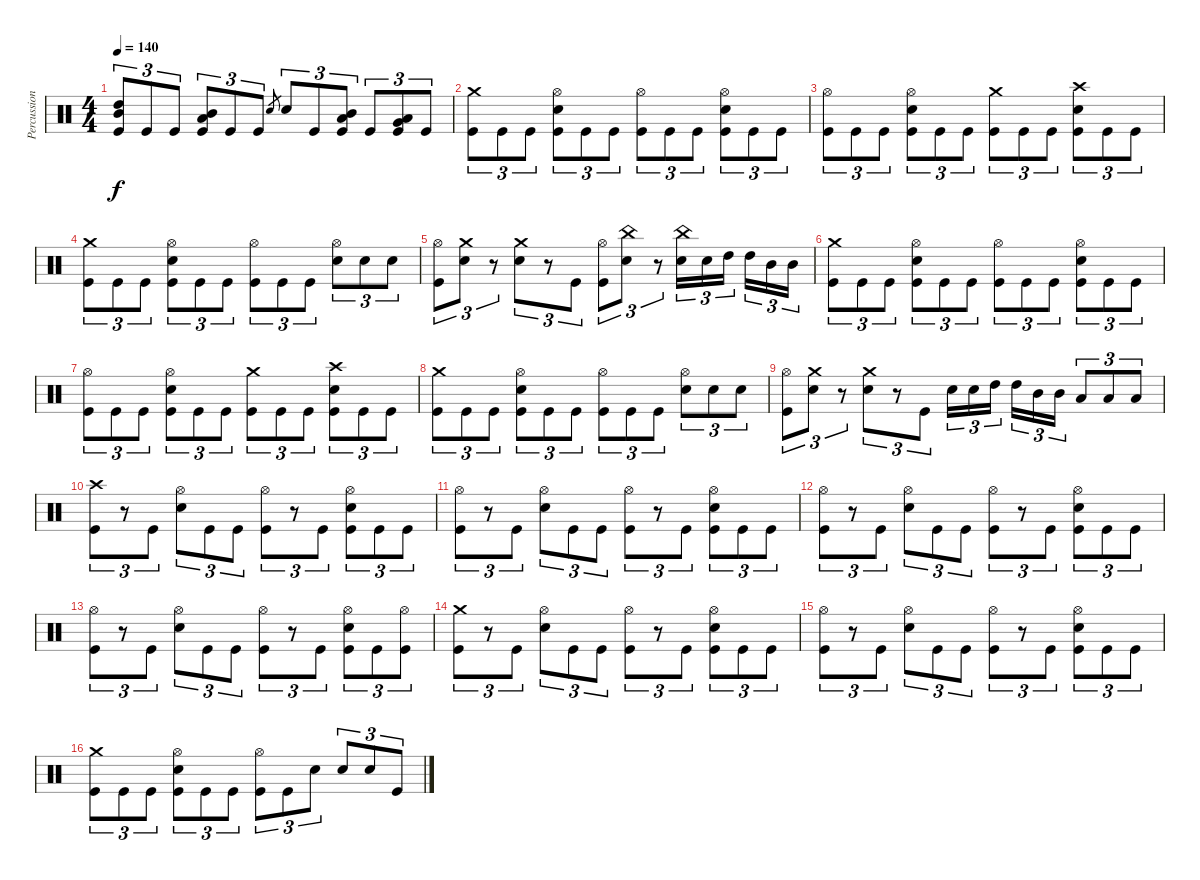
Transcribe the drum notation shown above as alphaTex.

\track ("Percussion" "Percussion") {instrument percussion}
\staff {score}
\articulation defaults
\ts (4 4)
\tempo 140
\clef neutral
\ks c
("High Tom (hit)" "Mid Tom (hit)" "Kick (hit)").8{tu (3 2) dy f} "Kick (hit)".8{tu (3 2)} "Kick (hit)".8{tu (3 2)} ("Mid Tom (hit)" "Low Tom (hit)" "Kick (hit)").8{tu (3 2)} "Kick (hit)".8{tu (3 2)} "Kick (hit)".8{tu (3 2)} "Snare (hit) 2".8{gr} "Snare (hit) 2".8{tu (3 2)} "Kick (hit)".8{tu (3 2)} ("Mid Tom (hit)" "Low Tom (hit)" "Kick (hit)").8{tu (3 2)} "Kick (hit)".8{tu (3 2)} ("Low Tom (hit)" "Very Low Tom (hit)" "Kick (hit)").8{tu (3 2)} "Kick (hit)".8{tu (3 2)} |
("Crash medium (hit)" "Kick (hit)").8{tu (3 2)} "Kick (hit)".8{tu (3 2)} "Kick (hit)".8{tu (3 2)} ("Hi-Hat (open)" "Snare (hit) 2" "Kick (hit)").8{tu (3 2)} "Kick (hit)".8{tu (3 2)} "Kick (hit)".8{tu (3 2)} ("Hi-Hat (open)" "Kick (hit)").8{tu (3 2)} "Kick (hit)".8{tu (3 2)} "Kick (hit)".8{tu (3 2)} ("Hi-Hat (open)" "Snare (hit) 2" "Kick (hit)").8{tu (3 2)} "Kick (hit)".8{tu (3 2)} "Kick (hit)".8{tu (3 2)} |
("Hi-Hat (open)" "Kick (hit)").8{tu (3 2)} "Kick (hit)".8{tu (3 2)} "Kick (hit)".8{tu (3 2)} ("Hi-Hat (open)" "Snare (hit) 2" "Kick (hit)").8{tu (3 2)} "Kick (hit)".8{tu (3 2)} "Kick (hit)".8{tu (3 2)} ("Crash medium (hit)" "Kick (hit)").8{tu (3 2)} "Kick (hit)".8{tu (3 2)} "Kick (hit)".8{tu (3 2)} ("Crash high (hit)" "Snare (hit) 2" "Kick (hit)").8{tu (3 2)} "Kick (hit)".8{tu (3 2)} "Kick (hit)".8{tu (3 2)} |
("Crash medium (hit)" "Kick (hit)").8{tu (3 2)} "Kick (hit)".8{tu (3 2)} "Kick (hit)".8{tu (3 2)} ("Hi-Hat (open)" "Snare (hit) 2" "Kick (hit)").8{tu (3 2)} "Kick (hit)".8{tu (3 2)} "Kick (hit)".8{tu (3 2)} ("Hi-Hat (open)" "Kick (hit)").8{tu (3 2)} "Kick (hit)".8{tu (3 2)} "Kick (hit)".8{tu (3 2)} ("Hi-Hat (open)" "Snare (hit) 2").8{tu (3 2)} "Snare (hit) 2".8{tu (3 2)} "Snare (hit) 2".8{tu (3 2)} |
("Hi-Hat (open)" "Kick (hit)").8{tu (3 2)} ("Crash medium (hit)" "Snare (hit) 2").8{tu (3 2)} r.8{tu (3 2)} ("Crash medium (hit)" "Snare (hit) 2").8{tu (3 2)} r.8{tu (3 2)} "Kick (hit)".8{tu (3 2)} ("Hi-Hat (open)" "Kick (hit)").8{tu (3 2)} ("China (hit)" "Snare (hit) 2").8{tu (3 2)} r.8{tu (3 2)} ("China (hit)" "Snare (hit) 2").16{tu (3 2)} "Snare (hit) 2".16{tu (3 2)} "High Tom (hit)".16{tu (3 2)} "High Tom (hit)".16{tu (3 2)} "Mid Tom (hit)".16{tu (3 2)} "Mid Tom (hit)".16{tu (3 2)} |
("Crash medium (hit)" "Kick (hit)").8{tu (3 2)} "Kick (hit)".8{tu (3 2)} "Kick (hit)".8{tu (3 2)} ("Hi-Hat (open)" "Snare (hit) 2" "Kick (hit)").8{tu (3 2)} "Kick (hit)".8{tu (3 2)} "Kick (hit)".8{tu (3 2)} ("Hi-Hat (open)" "Kick (hit)").8{tu (3 2)} "Kick (hit)".8{tu (3 2)} "Kick (hit)".8{tu (3 2)} ("Hi-Hat (open)" "Snare (hit) 2" "Kick (hit)").8{tu (3 2)} "Kick (hit)".8{tu (3 2)} "Kick (hit)".8{tu (3 2)} |
("Hi-Hat (open)" "Kick (hit)").8{tu (3 2)} "Kick (hit)".8{tu (3 2)} "Kick (hit)".8{tu (3 2)} ("Hi-Hat (open)" "Snare (hit) 2" "Kick (hit)").8{tu (3 2)} "Kick (hit)".8{tu (3 2)} "Kick (hit)".8{tu (3 2)} ("Crash medium (hit)" "Kick (hit)").8{tu (3 2)} "Kick (hit)".8{tu (3 2)} "Kick (hit)".8{tu (3 2)} ("Crash high (hit)" "Snare (hit) 2" "Kick (hit)").8{tu (3 2)} "Kick (hit)".8{tu (3 2)} "Kick (hit)".8{tu (3 2)} |
("Crash medium (hit)" "Kick (hit)").8{tu (3 2)} "Kick (hit)".8{tu (3 2)} "Kick (hit)".8{tu (3 2)} ("Hi-Hat (open)" "Snare (hit) 2" "Kick (hit)").8{tu (3 2)} "Kick (hit)".8{tu (3 2)} "Kick (hit)".8{tu (3 2)} ("Hi-Hat (open)" "Kick (hit)").8{tu (3 2)} "Kick (hit)".8{tu (3 2)} "Kick (hit)".8{tu (3 2)} ("Hi-Hat (open)" "Snare (hit) 2").8{tu (3 2)} "Snare (hit) 2".8{tu (3 2)} "Snare (hit) 2".8{tu (3 2)} |
("Hi-Hat (open)" "Kick (hit)").8{tu (3 2)} ("Crash medium (hit)" "Snare (hit) 2").8{tu (3 2)} r.8{tu (3 2)} ("Crash medium (hit)" "Snare (hit) 2").8{tu (3 2)} r.8{tu (3 2)} "Kick (hit)".8{tu (3 2)} "Snare (hit) 2".16{tu (3 2)} "Snare (hit) 2".16{tu (3 2)} "High Tom (hit)".16{tu (3 2)} "High Tom (hit)".16{tu (3 2)} "Mid Tom (hit)".16{tu (3 2)} "Mid Tom (hit)".16{tu (3 2)} "Low Tom (hit)".8{tu (3 2)} "Low Tom (hit)".8{tu (3 2)} "Low Tom (hit)".8{tu (3 2)} |
("Crash high (hit)" "Kick (hit)").8{tu (3 2)} r.8{tu (3 2)} "Kick (hit)".8{tu (3 2)} ("Hi-Hat (open)" "Snare (hit) 2").8{tu (3 2)} "Kick (hit)".8{tu (3 2)} "Kick (hit)".8{tu (3 2)} ("Hi-Hat (open)" "Kick (hit)").8{tu (3 2)} r.8{tu (3 2)} "Kick (hit)".8{tu (3 2)} ("Hi-Hat (open)" "Snare (hit) 2" "Kick (hit)").8{tu (3 2)} "Kick (hit)".8{tu (3 2)} "Kick (hit)".8{tu (3 2)} |
("Hi-Hat (open)" "Kick (hit)").8{tu (3 2)} r.8{tu (3 2)} "Kick (hit)".8{tu (3 2)} ("Hi-Hat (open)" "Snare (hit) 2").8{tu (3 2)} "Kick (hit)".8{tu (3 2)} "Kick (hit)".8{tu (3 2)} ("Hi-Hat (open)" "Kick (hit)").8{tu (3 2)} r.8{tu (3 2)} "Kick (hit)".8{tu (3 2)} ("Hi-Hat (open)" "Snare (hit) 2" "Kick (hit)").8{tu (3 2)} "Kick (hit)".8{tu (3 2)} "Kick (hit)".8{tu (3 2)} |
("Hi-Hat (open)" "Kick (hit)").8{tu (3 2)} r.8{tu (3 2)} "Kick (hit)".8{tu (3 2)} ("Hi-Hat (open)" "Snare (hit) 2").8{tu (3 2)} "Kick (hit)".8{tu (3 2)} "Kick (hit)".8{tu (3 2)} ("Hi-Hat (open)" "Kick (hit)").8{tu (3 2)} r.8{tu (3 2)} "Kick (hit)".8{tu (3 2)} ("Hi-Hat (open)" "Snare (hit) 2" "Kick (hit)").8{tu (3 2)} "Kick (hit)".8{tu (3 2)} "Kick (hit)".8{tu (3 2)} |
("Hi-Hat (open)" "Kick (hit)").8{tu (3 2)} r.8{tu (3 2)} "Kick (hit)".8{tu (3 2)} ("Hi-Hat (open)" "Snare (hit) 2").8{tu (3 2)} "Kick (hit)".8{tu (3 2)} "Kick (hit)".8{tu (3 2)} ("Hi-Hat (open)" "Kick (hit)").8{tu (3 2)} r.8{tu (3 2)} "Kick (hit)".8{tu (3 2)} ("Hi-Hat (open)" "Snare (hit) 2" "Kick (hit)").8{tu (3 2)} "Kick (hit)".8{tu (3 2)} ("Hi-Hat (open)" "Kick (hit)").8{tu (3 2)} |
("Crash medium (hit)" "Kick (hit)").8{tu (3 2)} r.8{tu (3 2)} "Kick (hit)".8{tu (3 2)} ("Hi-Hat (open)" "Snare (hit) 2").8{tu (3 2)} "Kick (hit)".8{tu (3 2)} "Kick (hit)".8{tu (3 2)} ("Hi-Hat (open)" "Kick (hit)").8{tu (3 2)} r.8{tu (3 2)} "Kick (hit)".8{tu (3 2)} ("Hi-Hat (open)" "Snare (hit) 2" "Kick (hit)").8{tu (3 2)} "Kick (hit)".8{tu (3 2)} "Kick (hit)".8{tu (3 2)} |
("Hi-Hat (open)" "Kick (hit)").8{tu (3 2)} r.8{tu (3 2)} "Kick (hit)".8{tu (3 2)} ("Hi-Hat (open)" "Snare (hit) 2").8{tu (3 2)} "Kick (hit)".8{tu (3 2)} "Kick (hit)".8{tu (3 2)} ("Hi-Hat (open)" "Kick (hit)").8{tu (3 2)} r.8{tu (3 2)} "Kick (hit)".8{tu (3 2)} ("Hi-Hat (open)" "Snare (hit) 2" "Kick (hit)").8{tu (3 2)} "Kick (hit)".8{tu (3 2)} "Kick (hit)".8{tu (3 2)} |
("Crash medium (hit)" "Kick (hit)").8{tu (3 2)} "Kick (hit)".8{tu (3 2)} "Kick (hit)".8{tu (3 2)} ("Hi-Hat (open)" "Snare (hit) 2" "Kick (hit)").8{tu (3 2)} "Kick (hit)".8{tu (3 2)} "Kick (hit)".8{tu (3 2)} ("Hi-Hat (open)" "Kick (hit)").8{tu (3 2)} "Kick (hit)".8{tu (3 2)} "Snare (hit) 2".8{tu (3 2)} "Snare (hit) 2".8{tu (3 2)} "Snare (hit) 2".8{tu (3 2)} "Kick (hit)".8{tu (3 2)}
